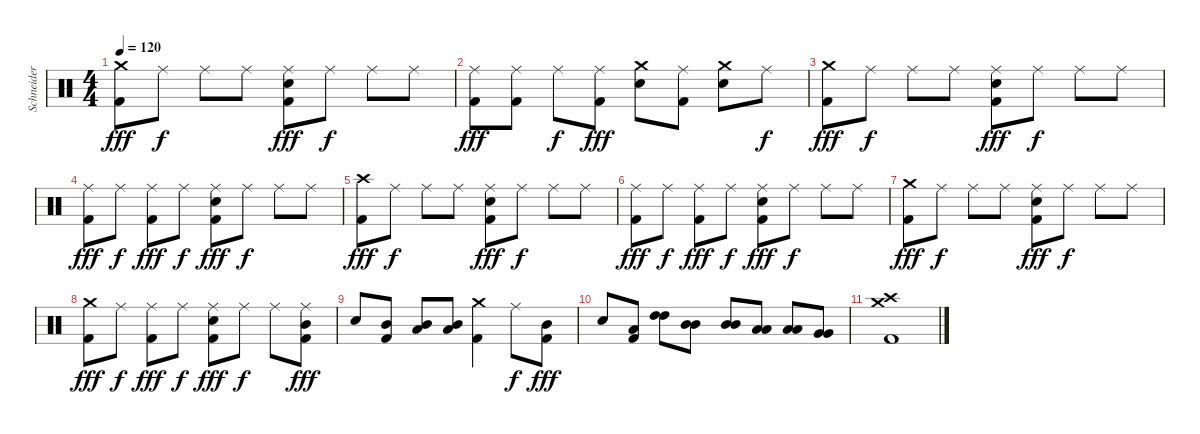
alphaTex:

\track ("Schneider" "Schneider") {instrument percussion}
\staff {score}
\articulation defaults
\ts (4 4)
\tempo 120
\clef neutral
\ks c
("Crash medium (hit)" "Kick (hit) 2").8{dy fff} "Ride (middle)".8{dy f} "Ride (middle)".8 "Ride (middle)".8 ("Ride (middle)" "Kick (hit) 2" "Snare (hit) 2").8{dy fff} "Ride (middle)".8{dy f} "Ride (middle)".8 "Ride (middle)".8 |
("Ride (middle)" "Kick (hit) 2").8{dy fff} ("Ride (middle)" "Kick (hit) 2").8 "Ride (middle)".8{dy f} ("Ride (middle)" "Kick (hit) 2").8{dy fff} ("Crash medium (hit)" "Snare (hit) 2").8 ("Ride (middle)" "Kick (hit) 2").8 ("Crash medium (hit)" "Snare (hit) 2").8 "Ride (middle)".8{dy f} |
("Crash medium (hit)" "Kick (hit) 2").8{dy fff} "Ride (middle)".8{dy f} "Ride (middle)".8 "Ride (middle)".8 ("Ride (middle)" "Kick (hit) 2" "Snare (hit) 2").8{dy fff} "Ride (middle)".8{dy f} "Ride (middle)".8 "Ride (middle)".8 |
("Ride (middle)" "Kick (hit) 2").8{dy fff} "Ride (middle)".8{dy f} ("Ride (middle)" "Kick (hit) 2").8{dy fff} "Ride (middle)".8{dy f} ("Ride (middle)" "Kick (hit) 2" "Snare (hit) 2").8{dy fff} "Ride (middle)".8{dy f} "Ride (middle)".8 "Ride (middle)".8 |
("Crash high (hit)" "Kick (hit) 2").8{dy fff} "Ride (middle)".8{dy f} "Ride (middle)".8 "Ride (middle)".8 ("Ride (middle)" "Kick (hit) 2" "Snare (hit) 2").8{dy fff} "Ride (middle)".8{dy f} "Ride (middle)".8 "Ride (middle)".8 |
("Ride (middle)" "Kick (hit) 2").8{dy fff} "Ride (middle)".8{dy f} ("Ride (middle)" "Kick (hit) 2").8{dy fff} "Ride (middle)".8{dy f} ("Ride (middle)" "Kick (hit) 2" "Snare (hit) 2").8{dy fff} "Ride (middle)".8{dy f} "Ride (middle)".8 "Ride (middle)".8 |
("Crash medium (hit)" "Kick (hit) 2").8{dy fff} "Ride (middle)".8{dy f} "Ride (middle)".8 "Ride (middle)".8 ("Ride (middle)" "Kick (hit) 2" "Snare (hit) 2").8{dy fff} "Ride (middle)".8{dy f} "Ride (middle)".8 "Ride (middle)".8 |
("Crash medium (hit)" "Kick (hit) 2").8{dy fff} "Ride (middle)".8{dy f} ("Ride (middle)" "Kick (hit) 2").8{dy fff} "Ride (middle)".8{dy f} ("Ride (middle)" "Kick (hit) 2" "Snare (hit) 2").8{dy fff} "Ride (middle)".8{dy f} "Ride (middle)".8 ("Ride (middle)" "Kick (hit) 2" "Mid Tom (hit)").8{dy fff} |
"Snare (hit) 2".8 ("Kick (hit) 2" "Mid Tom (hit)").8 ("Mid Tom (hit)" "Low Tom (hit)").8 ("Mid Tom (hit)" "Low Tom (hit)").8 ("Crash medium (hit)" "Kick (hit) 2").4 "Ride (middle)".8{dy f} ("Kick (hit) 2" "Mid Tom (hit)").8{dy fff} |
"Snare (hit) 2".8 ("Kick (hit) 2" "Low Tom (hit)").8 ("High Tom (hit)" "High Tom (hit)").8 ("Mid Tom (hit)" "Mid Tom (hit)").8 ("Mid Tom (hit)" "Mid Tom (hit)").8 ("Low Tom (hit)" "Low Tom (hit)").8 ("Low Tom (hit)" "Low Tom (hit)").8 ("Very Low Tom (hit)" "Very Low Tom (hit)").8 |
("Crash medium (hit)" "Kick (hit) 2" "Crash high (hit)").1
